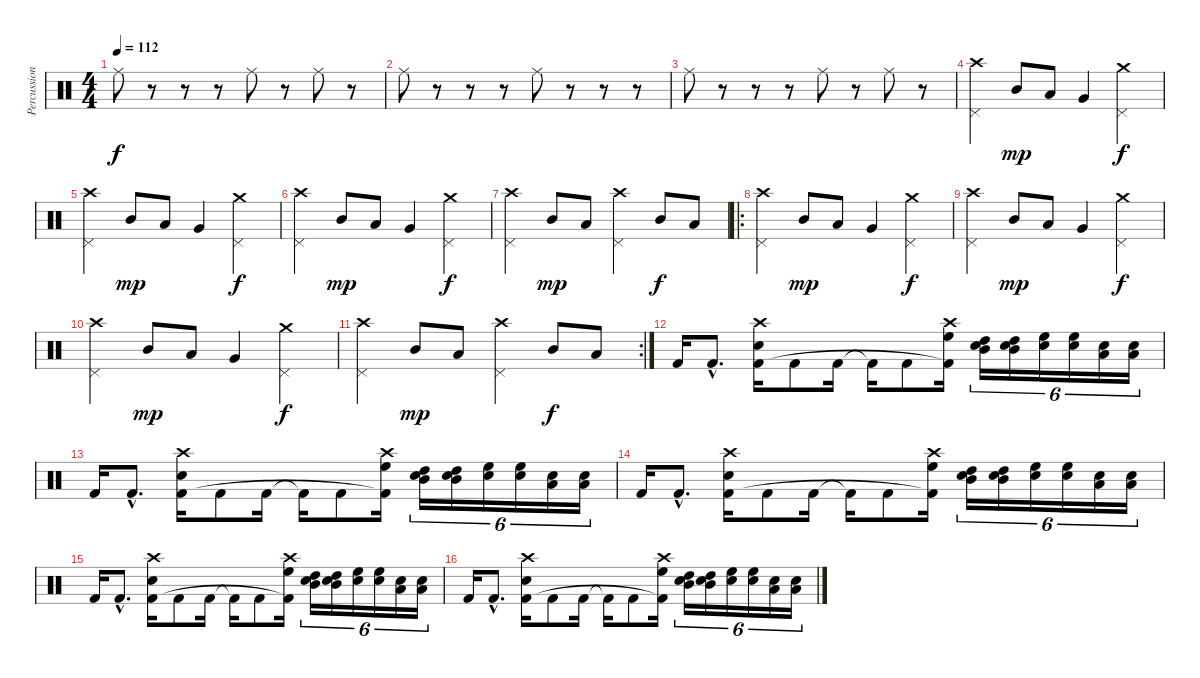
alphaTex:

\track ("Percussion" "Percussion") {instrument percussion}
\staff {score}
\articulation defaults
\ts (4 4)
\tempo 112
\clef neutral
\ks c "Ride (middle)".8{dy f}
r.8 r.8 r.8 "Ride (middle)".8 r.8 "Ride (middle)".8 r.8 |
"Ride (middle)".8 r.8 r.8 r.8 "Ride (middle)".8 r.8 r.8 r.8 |
"Ride (middle)".8 r.8 r.8 r.8 "Ride (middle)".8 r.8 "Ride (middle)".8 r.8 |
("Crash high (hit)" "Pedal Hi-Hat (hit)").4 "Mid Tom (hit)".8{dy mp} "Low Tom (hit)".8 "Very Low Tom (hit)".4 ("Crash medium (hit)" "Pedal Hi-Hat (hit)").4{dy f} |
("Crash high (hit)" "Pedal Hi-Hat (hit)").4 "Mid Tom (hit)".8{dy mp} "Low Tom (hit)".8 "Very Low Tom (hit)".4 ("Crash medium (hit)" "Pedal Hi-Hat (hit)").4{dy f} |
("Crash high (hit)" "Pedal Hi-Hat (hit)").4 "Mid Tom (hit)".8{dy mp} "Low Tom (hit)".8 "Very Low Tom (hit)".4 ("Crash medium (hit)" "Pedal Hi-Hat (hit)").4{dy f} |
("Crash high (hit)" "Pedal Hi-Hat (hit)").4 "Mid Tom (hit)".8{dy mp} "Low Tom (hit)".8 ("Crash high (hit)" "Pedal Hi-Hat (hit)").4 "Mid Tom (hit)".8{dy f} "Low Tom (hit)".8 |
\ro
("Crash high (hit)" "Pedal Hi-Hat (hit)").4 "Mid Tom (hit)".8{dy mp} "Low Tom (hit)".8 "Very Low Tom (hit)".4 ("Crash medium (hit)" "Pedal Hi-Hat (hit)").4{dy f} |
("Crash high (hit)" "Pedal Hi-Hat (hit)").4 "Mid Tom (hit)".8{dy mp} "Low Tom (hit)".8 "Very Low Tom (hit)".4 ("Crash medium (hit)" "Pedal Hi-Hat (hit)").4{dy f} |
("Crash high (hit)" "Pedal Hi-Hat (hit)").4 "Mid Tom (hit)".8{dy mp} "Low Tom (hit)".8 "Very Low Tom (hit)".4 ("Crash medium (hit)" "Pedal Hi-Hat (hit)").4{dy f} |
\rc 2
("Crash high (hit)" "Pedal Hi-Hat (hit)").4 "Mid Tom (hit)".8{dy mp} "Low Tom (hit)".8 ("Crash high (hit)" "Pedal Hi-Hat (hit)").4 "Mid Tom (hit)".8{dy f} "Low Tom (hit)".8 |
"Kick (hit) 2".16 "Kick (hit) 2"{hac}.8{d} ("Crash high (hit)" "Snare (hit) 2" "Kick (hit) 2").16 "Kick (hit) 2".8 "Kick (hit) 2".16 "Kick (hit) 2"{t}.16 "Kick (hit) 2".8 ("Crash high (hit)" "High Floor Tom (hit)" "Kick (hit) 2"{t}).16 ("Snare (hit) 2" "High Tom (hit)" "Mid Tom (hit)").16{tu (6 4)} ("Snare (hit) 2" "High Tom (hit)" "Mid Tom (hit)").16{tu (6 4)} ("Snare (hit) 2" "High Floor Tom (hit)").16{tu (6 4)} ("Snare (hit) 2" "High Floor Tom (hit)").16{tu (6 4)} ("Snare (hit) 2" "Low Tom (hit)").16{tu (6 4)} ("Snare (hit) 2" "Low Tom (hit)").16{tu (6 4)} |
"Kick (hit) 2".16 "Kick (hit) 2"{hac}.8{d} ("Crash high (hit)" "Snare (hit) 2" "Kick (hit) 2").16 "Kick (hit) 2".8 "Kick (hit) 2".16 "Kick (hit) 2"{t}.16 "Kick (hit) 2".8 ("Crash high (hit)" "High Floor Tom (hit)" "Kick (hit) 2"{t}).16 ("Snare (hit) 2" "High Tom (hit)" "Mid Tom (hit)").16{tu (6 4)} ("Snare (hit) 2" "High Tom (hit)" "Mid Tom (hit)").16{tu (6 4)} ("Snare (hit) 2" "High Floor Tom (hit)").16{tu (6 4)} ("Snare (hit) 2" "High Floor Tom (hit)").16{tu (6 4)} ("Snare (hit) 2" "Low Tom (hit)").16{tu (6 4)} ("Snare (hit) 2" "Low Tom (hit)").16{tu (6 4)} |
"Kick (hit) 2".16 "Kick (hit) 2"{hac}.8{d} ("Crash high (hit)" "Snare (hit) 2" "Kick (hit) 2").16 "Kick (hit) 2".8 "Kick (hit) 2".16 "Kick (hit) 2"{t}.16 "Kick (hit) 2".8 ("Crash high (hit)" "High Floor Tom (hit)" "Kick (hit) 2"{t}).16 ("Snare (hit) 2" "High Tom (hit)" "Mid Tom (hit)").16{tu (6 4)} ("Snare (hit) 2" "High Tom (hit)" "Mid Tom (hit)").16{tu (6 4)} ("Snare (hit) 2" "High Floor Tom (hit)").16{tu (6 4)} ("Snare (hit) 2" "High Floor Tom (hit)").16{tu (6 4)} ("Snare (hit) 2" "Low Tom (hit)").16{tu (6 4)} ("Snare (hit) 2" "Low Tom (hit)").16{tu (6 4)} |
"Kick (hit) 2".16 "Kick (hit) 2"{hac}.8{d} ("Crash high (hit)" "Snare (hit) 2" "Kick (hit) 2").16 "Kick (hit) 2".8 "Kick (hit) 2".16 "Kick (hit) 2"{t}.16 "Kick (hit) 2".8 ("Crash high (hit)" "High Floor Tom (hit)" "Kick (hit) 2"{t}).16 ("Snare (hit) 2" "High Tom (hit)" "Mid Tom (hit)").16{tu (6 4)} ("Snare (hit) 2" "High Tom (hit)" "Mid Tom (hit)").16{tu (6 4)} ("Snare (hit) 2" "High Floor Tom (hit)").16{tu (6 4)} ("Snare (hit) 2" "High Floor Tom (hit)").16{tu (6 4)} ("Snare (hit) 2" "Low Tom (hit)").16{tu (6 4)} ("Snare (hit) 2" "Low Tom (hit)").16{tu (6 4)} |
"Kick (hit) 2".16 "Kick (hit) 2"{hac}.8{d} ("Crash high (hit)" "Snare (hit) 2" "Kick (hit) 2").16 "Kick (hit) 2".8 "Kick (hit) 2".16 "Kick (hit) 2"{t}.16 "Kick (hit) 2".8 ("Crash high (hit)" "High Floor Tom (hit)" "Kick (hit) 2"{t}).16 ("Snare (hit) 2" "High Tom (hit)" "Mid Tom (hit)").16{tu (6 4)} ("Snare (hit) 2" "High Tom (hit)" "Mid Tom (hit)").16{tu (6 4)} ("Snare (hit) 2" "High Floor Tom (hit)").16{tu (6 4)} ("Snare (hit) 2" "High Floor Tom (hit)").16{tu (6 4)} ("Snare (hit) 2" "Low Tom (hit)").16{tu (6 4)} ("Snare (hit) 2" "Low Tom (hit)").16{tu (6 4)}
